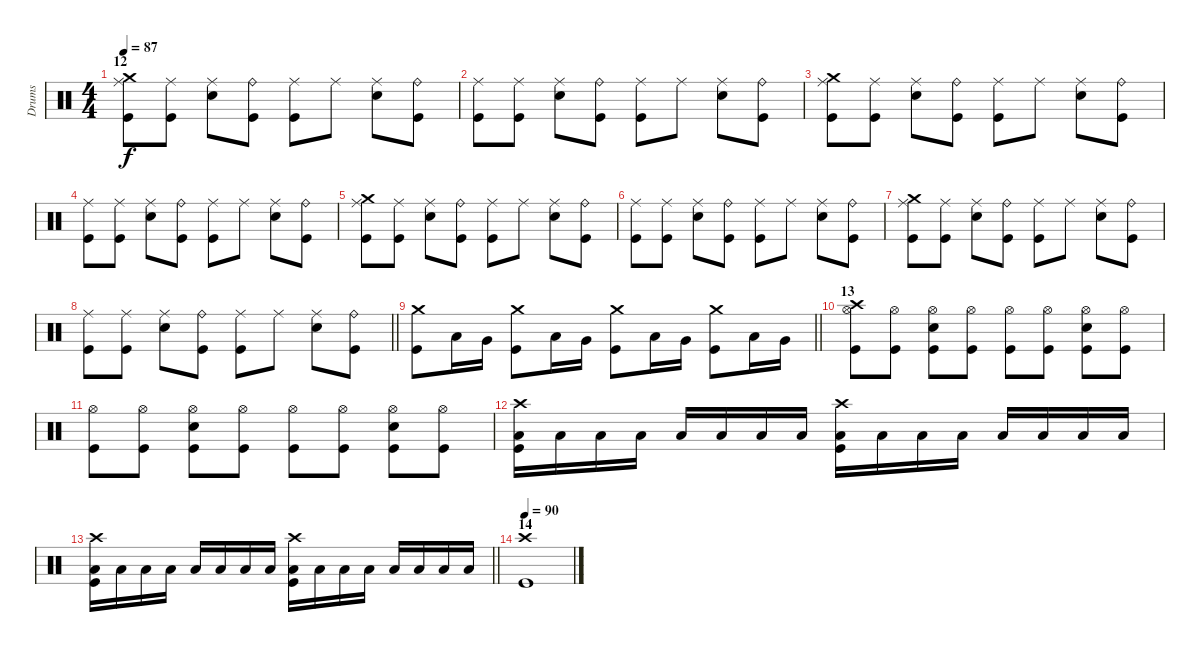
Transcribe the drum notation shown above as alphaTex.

\track ("Drums" "Drums") {instrument percussion}
\staff {score}
\articulation defaults
\ts (4 4)
\section ("" "12")
\tempo 87
\clef neutral
\ks c
("Crash medium (hit)" "Ride (middle)" "Kick (hit)").8{dy f} ("Ride (middle)" "Kick (hit)").8 ("Ride (middle)" "Electric Snare (hit)").8 ("Ride (bell)" "Kick (hit)").8 ("Ride (middle)" "Kick (hit)").8 "Ride (middle)".8 ("Ride (middle)" "Electric Snare (hit)").8 ("Ride (bell)" "Kick (hit)").8 |
("Ride (middle)" "Kick (hit)").8 ("Ride (middle)" "Kick (hit)").8 ("Ride (middle)" "Electric Snare (hit)").8 ("Ride (bell)" "Kick (hit)").8 ("Ride (middle)" "Kick (hit)").8 "Ride (middle)".8 ("Ride (middle)" "Electric Snare (hit)").8 ("Ride (bell)" "Kick (hit)").8 |
("Crash medium (hit)" "Ride (middle)" "Kick (hit)").8 ("Ride (middle)" "Kick (hit)").8 ("Ride (middle)" "Electric Snare (hit)").8 ("Ride (bell)" "Kick (hit)").8 ("Ride (middle)" "Kick (hit)").8 "Ride (middle)".8 ("Ride (middle)" "Electric Snare (hit)").8 ("Ride (bell)" "Kick (hit)").8 |
("Ride (middle)" "Kick (hit)").8 ("Ride (middle)" "Kick (hit)").8 ("Ride (middle)" "Electric Snare (hit)").8 ("Ride (bell)" "Kick (hit)").8 ("Ride (middle)" "Kick (hit)").8 "Ride (middle)".8 ("Ride (middle)" "Electric Snare (hit)").8 ("Ride (bell)" "Kick (hit)").8 |
("Crash medium (hit)" "Ride (middle)" "Kick (hit)").8 ("Ride (middle)" "Kick (hit)").8 ("Ride (middle)" "Electric Snare (hit)").8 ("Ride (bell)" "Kick (hit)").8 ("Ride (middle)" "Kick (hit)").8 "Ride (middle)".8 ("Ride (middle)" "Electric Snare (hit)").8 ("Ride (bell)" "Kick (hit)").8 |
("Ride (middle)" "Kick (hit)").8 ("Ride (middle)" "Kick (hit)").8 ("Ride (middle)" "Electric Snare (hit)").8 ("Ride (bell)" "Kick (hit)").8 ("Ride (middle)" "Kick (hit)").8 "Ride (middle)".8 ("Ride (middle)" "Electric Snare (hit)").8 ("Ride (bell)" "Kick (hit)").8 |
("Crash medium (hit)" "Ride (middle)" "Kick (hit)").8 ("Ride (middle)" "Kick (hit)").8 ("Ride (middle)" "Electric Snare (hit)").8 ("Ride (bell)" "Kick (hit)").8 ("Ride (middle)" "Kick (hit)").8 "Ride (middle)".8 ("Ride (middle)" "Electric Snare (hit)").8 ("Ride (bell)" "Kick (hit)").8 |
\barLineRight lightlight
("Ride (middle)" "Kick (hit)").8 ("Ride (middle)" "Kick (hit)").8 ("Ride (middle)" "Electric Snare (hit)").8 ("Ride (bell)" "Kick (hit)").8 ("Ride (middle)" "Kick (hit)").8 "Ride (middle)".8 ("Ride (middle)" "Electric Snare (hit)").8 ("Ride (bell)" "Kick (hit)").8 |
\barLineRight lightlight
("Crash medium (hit)" "Kick (hit)").8 "Low Tom (hit)".16 "Very Low Tom (hit)".16 ("Crash medium (hit)" "Kick (hit)").8 "Low Tom (hit)".16 "Very Low Tom (hit)".16 ("Crash medium (hit)" "Kick (hit)").8 "Low Tom (hit)".16 "Very Low Tom (hit)".16 ("Crash medium (hit)" "Kick (hit)").8 "Low Tom (hit)".16 "Very Low Tom (hit)".16 |
\section ("" "13")
("Crash high (hit)" "Hi-Hat (open)" "Kick (hit)").8 ("Hi-Hat (open)" "Kick (hit)").8 ("Hi-Hat (open)" "Electric Snare (hit)" "Kick (hit)").8 ("Hi-Hat (open)" "Kick (hit)").8 ("Hi-Hat (open)" "Kick (hit)").8 ("Hi-Hat (open)" "Kick (hit)").8 ("Hi-Hat (open)" "Electric Snare (hit)" "Kick (hit)").8 ("Hi-Hat (open)" "Kick (hit)").8 |
("Hi-Hat (open)" "Kick (hit)").8 ("Hi-Hat (open)" "Kick (hit)").8 ("Hi-Hat (open)" "Electric Snare (hit)" "Kick (hit)").8 ("Hi-Hat (open)" "Kick (hit)").8 ("Hi-Hat (open)" "Kick (hit)").8 ("Hi-Hat (open)" "Kick (hit)").8 ("Hi-Hat (open)" "Electric Snare (hit)" "Kick (hit)").8 ("Hi-Hat (open)" "Kick (hit)").8 |
("Crash high (hit)" "Low Tom (hit)" "Kick (hit)").16 "Low Tom (hit)".16 "Low Tom (hit)".16 "Low Tom (hit)".16 "Low Tom (hit)".16 "Low Tom (hit)".16 "Low Tom (hit)".16 "Low Tom (hit)".16 ("Crash high (hit)" "Low Tom (hit)" "Kick (hit)").16 "Low Tom (hit)".16 "Low Tom (hit)".16 "Low Tom (hit)".16 "Low Tom (hit)".16 "Low Tom (hit)".16 "Low Tom (hit)".16 "Low Tom (hit)".16 |
\barLineRight lightlight
("Crash high (hit)" "Low Tom (hit)" "Kick (hit)").16 "Low Tom (hit)".16 "Low Tom (hit)".16 "Low Tom (hit)".16 "Low Tom (hit)".16 "Low Tom (hit)".16 "Low Tom (hit)".16 "Low Tom (hit)".16 ("Crash high (hit)" "Low Tom (hit)" "Kick (hit)").16 "Low Tom (hit)".16 "Low Tom (hit)".16 "Low Tom (hit)".16 "Low Tom (hit)".16 "Low Tom (hit)".16 "Low Tom (hit)".16 "Low Tom (hit)".16 |
\section ("" "14")
\tempo 90
("Crash high (hit)" "Kick (hit)").1
